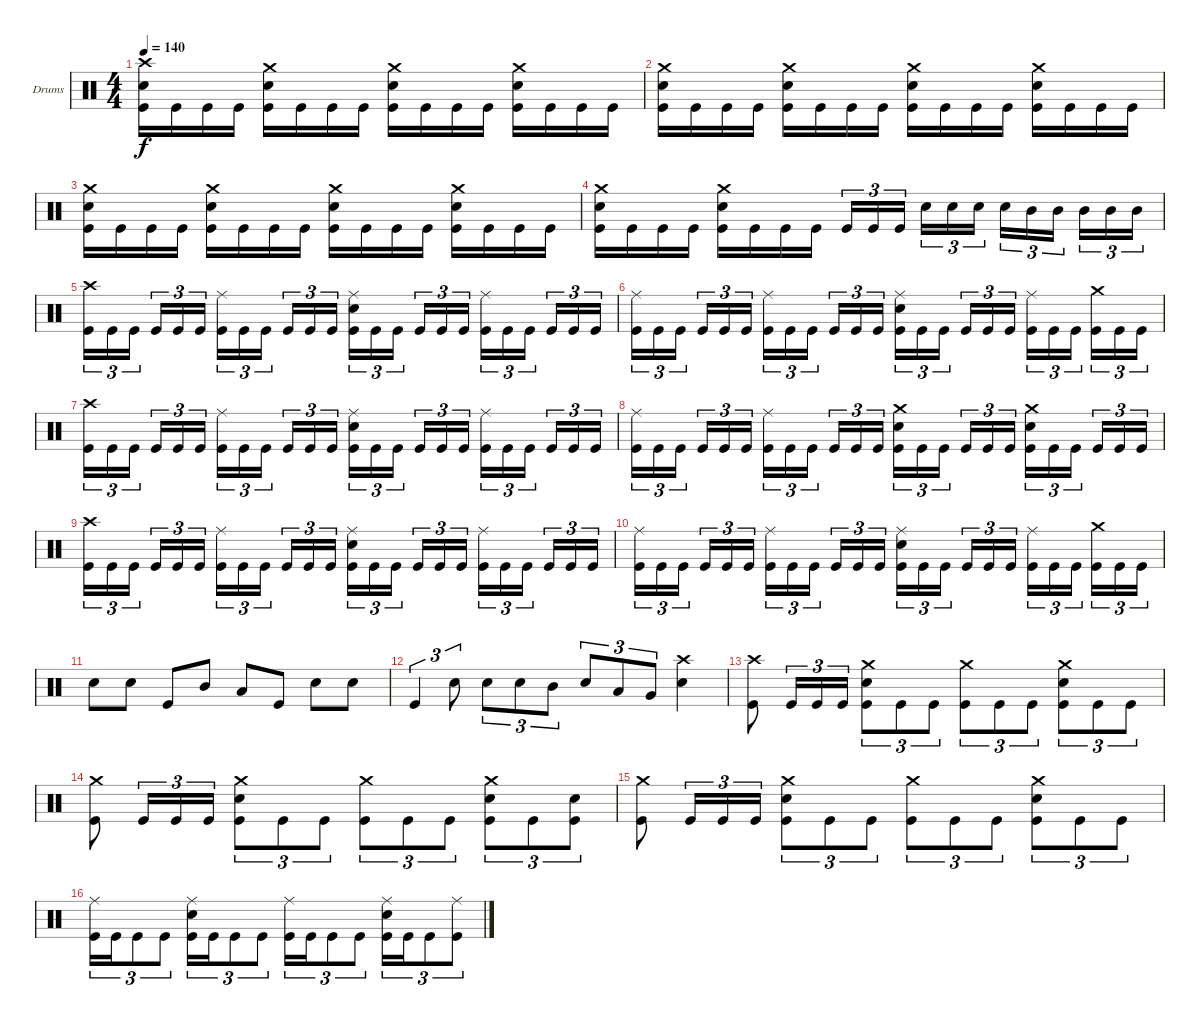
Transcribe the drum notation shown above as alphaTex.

\bracketExtendMode groupsimilarinstruments
\firstSystemTrackNameOrientation horizontal
\otherSystemsTrackNameOrientation horizontal
\track ("Drumkit" "Drums") {instrument percussion}
\staff {score}
\articulation defaults
\ts (4 4)
\tempo 140
\clef neutral
\ks c
("Kick (hit)" "Snare (hit) 2" "Crash high (hit)").16{dy f} "Kick (hit)".16 "Kick (hit)".16 "Kick (hit)".16 ("Kick (hit)" "Snare (hit) 2" "Crash medium (hit)").16 "Kick (hit)".16 "Kick (hit)".16 "Kick (hit)".16 ("Kick (hit)" "Snare (hit) 2" "Crash medium (hit)").16 "Kick (hit)".16 "Kick (hit)".16 "Kick (hit)".16 ("Kick (hit)" "Snare (hit) 2" "Crash medium (hit)").16 "Kick (hit)".16 "Kick (hit)".16 "Kick (hit)".16 |
("Kick (hit)" "Snare (hit) 2" "Crash medium (hit)").16 "Kick (hit)".16 "Kick (hit)".16 "Kick (hit)".16 ("Kick (hit)" "Snare (hit) 2" "Crash medium (hit)").16 "Kick (hit)".16 "Kick (hit)".16 "Kick (hit)".16 ("Kick (hit)" "Snare (hit) 2" "Crash medium (hit)").16 "Kick (hit)".16 "Kick (hit)".16 "Kick (hit)".16 ("Kick (hit)" "Snare (hit) 2" "Crash medium (hit)").16 "Kick (hit)".16 "Kick (hit)".16 "Kick (hit)".16 |
("Kick (hit)" "Snare (hit) 2" "Crash medium (hit)").16 "Kick (hit)".16 "Kick (hit)".16 "Kick (hit)".16 ("Kick (hit)" "Snare (hit) 2" "Crash medium (hit)").16 "Kick (hit)".16 "Kick (hit)".16 "Kick (hit)".16 ("Kick (hit)" "Snare (hit) 2" "Crash medium (hit)").16 "Kick (hit)".16 "Kick (hit)".16 "Kick (hit)".16 ("Kick (hit)" "Snare (hit) 2" "Crash medium (hit)").16 "Kick (hit)".16 "Kick (hit)".16 "Kick (hit)".16 |
("Kick (hit)" "Snare (hit) 2" "Crash medium (hit)").16 "Kick (hit)".16 "Kick (hit)".16 "Kick (hit)".16 ("Kick (hit)" "Snare (hit) 2" "Crash medium (hit)").16 "Kick (hit)".16 "Kick (hit)".16 "Kick (hit)".16 "Kick (hit)".16{tu (3 2)} "Kick (hit)".16{tu (3 2)} "Kick (hit)".16{tu (3 2)} "Snare (hit) 2".16{tu (3 2)} "Snare (hit) 2".16{tu (3 2)} "Snare (hit) 2".16{tu (3 2)} "Snare (hit) 2".16{tu (3 2)} "Mid Tom (hit)".16{tu (3 2)} "Mid Tom (hit)".16{tu (3 2)} "Mid Tom (hit)".16{tu (3 2)} "Mid Tom (hit)".16{tu (3 2)} "Mid Tom (hit)".16{tu (3 2)} |
("Kick (hit)" "Crash high (hit)").16{tu (3 2)} "Kick (hit)".16{tu (3 2)} "Kick (hit)".16{tu (3 2)} "Kick (hit)".16{tu (3 2)} "Kick (hit)".16{tu (3 2)} "Kick (hit)".16{tu (3 2)} ("Kick (hit)" "Ride (middle)").16{tu (3 2)} "Kick (hit)".16{tu (3 2)} "Kick (hit)".16{tu (3 2)} "Kick (hit)".16{tu (3 2)} "Kick (hit)".16{tu (3 2)} "Kick (hit)".16{tu (3 2)} ("Kick (hit)" "Ride (middle)" "Snare (hit) 2").16{tu (3 2)} "Kick (hit)".16{tu (3 2)} "Kick (hit)".16{tu (3 2)} "Kick (hit)".16{tu (3 2)} "Kick (hit)".16{tu (3 2)} "Kick (hit)".16{tu (3 2)} ("Kick (hit)" "Ride (middle)").16{tu (3 2)} "Kick (hit)".16{tu (3 2)} "Kick (hit)".16{tu (3 2)} "Kick (hit)".16{tu (3 2)} "Kick (hit)".16{tu (3 2)} "Kick (hit)".16{tu (3 2)} |
("Kick (hit)" "Ride (middle)").16{tu (3 2)} "Kick (hit)".16{tu (3 2)} "Kick (hit)".16{tu (3 2)} "Kick (hit)".16{tu (3 2)} "Kick (hit)".16{tu (3 2)} "Kick (hit)".16{tu (3 2)} ("Kick (hit)" "Ride (middle)").16{tu (3 2)} "Kick (hit)".16{tu (3 2)} "Kick (hit)".16{tu (3 2)} "Kick (hit)".16{tu (3 2)} "Kick (hit)".16{tu (3 2)} "Kick (hit)".16{tu (3 2)} ("Kick (hit)" "Ride (middle)" "Snare (hit) 2").16{tu (3 2)} "Kick (hit)".16{tu (3 2)} "Kick (hit)".16{tu (3 2)} "Kick (hit)".16{tu (3 2)} "Kick (hit)".16{tu (3 2)} "Kick (hit)".16{tu (3 2)} ("Kick (hit)" "Ride (middle)").16{tu (3 2)} "Kick (hit)".16{tu (3 2)} "Kick (hit)".16{tu (3 2)} ("Kick (hit)" "Crash medium (hit)").16{tu (3 2)} "Kick (hit)".16{tu (3 2)} "Kick (hit)".16{tu (3 2)} |
("Kick (hit)" "Crash high (hit)").16{tu (3 2)} "Kick (hit)".16{tu (3 2)} "Kick (hit)".16{tu (3 2)} "Kick (hit)".16{tu (3 2)} "Kick (hit)".16{tu (3 2)} "Kick (hit)".16{tu (3 2)} ("Kick (hit)" "Ride (middle)").16{tu (3 2)} "Kick (hit)".16{tu (3 2)} "Kick (hit)".16{tu (3 2)} "Kick (hit)".16{tu (3 2)} "Kick (hit)".16{tu (3 2)} "Kick (hit)".16{tu (3 2)} ("Kick (hit)" "Ride (middle)" "Snare (hit) 2").16{tu (3 2)} "Kick (hit)".16{tu (3 2)} "Kick (hit)".16{tu (3 2)} "Kick (hit)".16{tu (3 2)} "Kick (hit)".16{tu (3 2)} "Kick (hit)".16{tu (3 2)} ("Kick (hit)" "Ride (middle)").16{tu (3 2)} "Kick (hit)".16{tu (3 2)} "Kick (hit)".16{tu (3 2)} "Kick (hit)".16{tu (3 2)} "Kick (hit)".16{tu (3 2)} "Kick (hit)".16{tu (3 2)} |
("Kick (hit)" "Ride (middle)").16{tu (3 2)} "Kick (hit)".16{tu (3 2)} "Kick (hit)".16{tu (3 2)} "Kick (hit)".16{tu (3 2)} "Kick (hit)".16{tu (3 2)} "Kick (hit)".16{tu (3 2)} ("Kick (hit)" "Ride (middle)").16{tu (3 2)} "Kick (hit)".16{tu (3 2)} "Kick (hit)".16{tu (3 2)} "Kick (hit)".16{tu (3 2)} "Kick (hit)".16{tu (3 2)} "Kick (hit)".16{tu (3 2)} ("Kick (hit)" "Snare (hit) 2" "Crash medium (hit)").16{tu (3 2)} "Kick (hit)".16{tu (3 2)} "Kick (hit)".16{tu (3 2)} "Kick (hit)".16{tu (3 2)} "Kick (hit)".16{tu (3 2)} "Kick (hit)".16{tu (3 2)} ("Kick (hit)" "Crash medium (hit)" "Snare (hit) 2").16{tu (3 2)} "Kick (hit)".16{tu (3 2)} "Kick (hit)".16{tu (3 2)} "Kick (hit)".16{tu (3 2)} "Kick (hit)".16{tu (3 2)} "Kick (hit)".16{tu (3 2)} |
("Kick (hit)" "Crash high (hit)").16{tu (3 2)} "Kick (hit)".16{tu (3 2)} "Kick (hit)".16{tu (3 2)} "Kick (hit)".16{tu (3 2)} "Kick (hit)".16{tu (3 2)} "Kick (hit)".16{tu (3 2)} ("Kick (hit)" "Ride (middle)").16{tu (3 2)} "Kick (hit)".16{tu (3 2)} "Kick (hit)".16{tu (3 2)} "Kick (hit)".16{tu (3 2)} "Kick (hit)".16{tu (3 2)} "Kick (hit)".16{tu (3 2)} ("Kick (hit)" "Ride (middle)" "Snare (hit) 2").16{tu (3 2)} "Kick (hit)".16{tu (3 2)} "Kick (hit)".16{tu (3 2)} "Kick (hit)".16{tu (3 2)} "Kick (hit)".16{tu (3 2)} "Kick (hit)".16{tu (3 2)} ("Kick (hit)" "Ride (middle)").16{tu (3 2)} "Kick (hit)".16{tu (3 2)} "Kick (hit)".16{tu (3 2)} "Kick (hit)".16{tu (3 2)} "Kick (hit)".16{tu (3 2)} "Kick (hit)".16{tu (3 2)} |
("Kick (hit)" "Ride (middle)").16{tu (3 2)} "Kick (hit)".16{tu (3 2)} "Kick (hit)".16{tu (3 2)} "Kick (hit)".16{tu (3 2)} "Kick (hit)".16{tu (3 2)} "Kick (hit)".16{tu (3 2)} ("Kick (hit)" "Ride (middle)").16{tu (3 2)} "Kick (hit)".16{tu (3 2)} "Kick (hit)".16{tu (3 2)} "Kick (hit)".16{tu (3 2)} "Kick (hit)".16{tu (3 2)} "Kick (hit)".16{tu (3 2)} ("Kick (hit)" "Ride (middle)" "Snare (hit) 2").16{tu (3 2)} "Kick (hit)".16{tu (3 2)} "Kick (hit)".16{tu (3 2)} "Kick (hit)".16{tu (3 2)} "Kick (hit)".16{tu (3 2)} "Kick (hit)".16{tu (3 2)} ("Kick (hit)" "Ride (middle)").16{tu (3 2)} "Kick (hit)".16{tu (3 2)} "Kick (hit)".16{tu (3 2)} ("Kick (hit)" "Crash medium (hit)").16{tu (3 2)} "Kick (hit)".16{tu (3 2)} "Kick (hit)".16{tu (3 2)} |
"Snare (hit) 2".8 "Snare (hit) 2".8 "Kick (hit)".8 "Mid Tom (hit)".8 "Low Tom (hit)".8 "Kick (hit)".8 "Snare (hit) 2".8 "Snare (hit) 2".8 |
"Kick (hit)".4{tu (3 2)} "Snare (hit) 2".8{tu (3 2)} "Snare (hit) 2".8{tu (3 2)} "Snare (hit) 2".8{tu (3 2)} "Mid Tom (hit)".8{tu (3 2)} "Snare (hit) 2".8{tu (3 2)} "Low Tom (hit)".8{tu (3 2)} "Very Low Tom (hit)".8{tu (3 2)} ("Snare (hit) 2" "Crash high (hit)").4 |
("Kick (hit)" "Crash high (hit)").8 "Kick (hit)".16{tu (3 2)} "Kick (hit)".16{tu (3 2)} "Kick (hit)".16{tu (3 2)} ("Kick (hit)" "Crash medium (hit)" "Snare (hit) 2").8{tu (3 2)} "Kick (hit)".8{tu (3 2)} "Kick (hit)".8{tu (3 2)} ("Kick (hit)" "Crash medium (hit)").8{tu (3 2)} "Kick (hit)".8{tu (3 2)} "Kick (hit)".8{tu (3 2)} ("Kick (hit)" "Crash medium (hit)" "Snare (hit) 2").8{tu (3 2)} "Kick (hit)".8{tu (3 2)} "Kick (hit)".8{tu (3 2)} |
("Kick (hit)" "Crash medium (hit)").8 "Kick (hit)".16{tu (3 2)} "Kick (hit)".16{tu (3 2)} "Kick (hit)".16{tu (3 2)} ("Kick (hit)" "Crash medium (hit)" "Snare (hit) 2").8{tu (3 2)} "Kick (hit)".8{tu (3 2)} "Kick (hit)".8{tu (3 2)} ("Kick (hit)" "Crash medium (hit)").8{tu (3 2)} "Kick (hit)".8{tu (3 2)} "Kick (hit)".8{tu (3 2)} ("Kick (hit)" "Crash medium (hit)" "Snare (hit) 2").8{tu (3 2)} "Kick (hit)".8{tu (3 2)} ("Kick (hit)" "Snare (hit) 2").8{tu (3 2)} |
("Kick (hit)" "Crash medium (hit)").8 "Kick (hit)".16{tu (3 2)} "Kick (hit)".16{tu (3 2)} "Kick (hit)".16{tu (3 2)} ("Kick (hit)" "Crash medium (hit)" "Snare (hit) 2").8{tu (3 2)} "Kick (hit)".8{tu (3 2)} "Kick (hit)".8{tu (3 2)} ("Kick (hit)" "Crash medium (hit)").8{tu (3 2)} "Kick (hit)".8{tu (3 2)} "Kick (hit)".8{tu (3 2)} ("Kick (hit)" "Crash medium (hit)" "Snare (hit) 2").8{tu (3 2)} "Kick (hit)".8{tu (3 2)} "Kick (hit)".8{tu (3 2)} |
("Kick (hit)" "Ride (middle)").16{tu (3 2)} "Kick (hit)".16{tu (3 2)} "Kick (hit)".8{tu (3 2)} "Kick (hit)".8{tu (3 2)} ("Kick (hit)" "Ride (middle)" "Snare (hit) 2").16{tu (3 2)} "Kick (hit)".16{tu (3 2)} "Kick (hit)".8{tu (3 2)} "Kick (hit)".8{tu (3 2)} ("Kick (hit)" "Ride (middle)").16{tu (3 2)} "Kick (hit)".16{tu (3 2)} "Kick (hit)".8{tu (3 2)} "Kick (hit)".8{tu (3 2)} ("Kick (hit)" "Ride (middle)" "Snare (hit) 2").16{tu (3 2)} "Kick (hit)".16{tu (3 2)} "Kick (hit)".8{tu (3 2)} ("Kick (hit)" "Ride (middle)").8{tu (3 2)}
